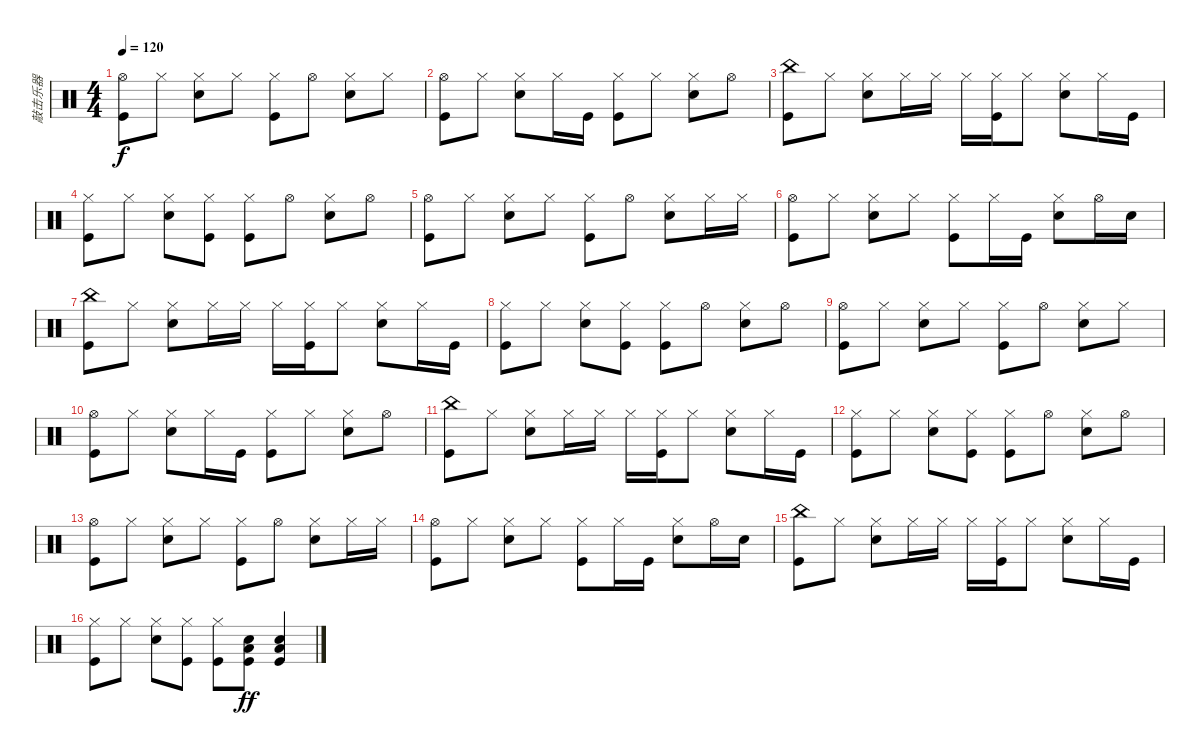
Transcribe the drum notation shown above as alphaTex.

\track ("敲击乐器" "敲击乐器") {instrument percussion}
\staff {score}
\articulation defaults
\ts (4 4)
\tempo 120
\clef neutral
\ks c
("Kick (hit)" "Hi-Hat (open)").8{dy f} "Hi-Hat (closed)".8 ("Snare (hit) 2" "Hi-Hat (closed)").8 "Hi-Hat (closed)".8 ("Kick (hit)" "Hi-Hat (closed)").8 "Hi-Hat (open)".8 ("Snare (hit) 2" "Hi-Hat (closed)").8 "Hi-Hat (closed)".8 |
("Kick (hit)" "Hi-Hat (open)").8 "Hi-Hat (closed)".8 ("Snare (hit) 2" "Hi-Hat (closed)").8 "Hi-Hat (closed)".16 "Kick (hit)".16 ("Kick (hit)" "Hi-Hat (closed)").8 "Hi-Hat (closed)".8 ("Snare (hit) 2" "Hi-Hat (closed)").8 "Hi-Hat (open)".8 |
("Kick (hit)" "China (hit)").8 "Hi-Hat (closed)".8 ("Snare (hit) 2" "Hi-Hat (closed)").8 "Hi-Hat (closed)".16 "Hi-Hat (closed)".16 "Hi-Hat (closed)".16 ("Kick (hit)" "Hi-Hat (closed)").16 "Hi-Hat (closed)".8 ("Snare (hit) 2" "Hi-Hat (closed)").8 "Hi-Hat (closed)".16 "Kick (hit)".16 |
("Kick (hit)" "Hi-Hat (closed)").8 "Hi-Hat (closed)".8 ("Snare (hit) 2" "Hi-Hat (closed)").8 ("Hi-Hat (closed)" "Kick (hit)").8 ("Kick (hit)" "Hi-Hat (closed)").8 "Hi-Hat (open)".8 ("Snare (hit) 2" "Hi-Hat (closed)").8 "Hi-Hat (open)".8 |
("Kick (hit)" "Hi-Hat (open)").8 "Hi-Hat (closed)".8 ("Snare (hit) 2" "Hi-Hat (closed)").8 "Hi-Hat (closed)".8 ("Kick (hit)" "Hi-Hat (closed)").8 "Hi-Hat (open)".8 ("Snare (hit) 2" "Hi-Hat (closed)").8 "Hi-Hat (closed)".16 "Hi-Hat (closed)".16 |
("Kick (hit)" "Hi-Hat (open)").8 "Hi-Hat (closed)".8 ("Snare (hit) 2" "Hi-Hat (closed)").8 "Hi-Hat (closed)".8 ("Kick (hit)" "Hi-Hat (closed)").8 "Hi-Hat (closed)".16 "Kick (hit)".16 ("Snare (hit) 2" "Hi-Hat (closed)").8 "Hi-Hat (open)".16 "Snare (hit) 2".16 |
("Kick (hit)" "China (hit)").8 "Hi-Hat (closed)".8 ("Snare (hit) 2" "Hi-Hat (closed)").8 "Hi-Hat (closed)".16 "Hi-Hat (closed)".16 "Hi-Hat (closed)".16 ("Kick (hit)" "Hi-Hat (closed)").16 "Hi-Hat (closed)".8 ("Snare (hit) 2" "Hi-Hat (closed)").8 "Hi-Hat (closed)".16 "Kick (hit)".16 |
("Kick (hit)" "Hi-Hat (closed)").8 "Hi-Hat (closed)".8 ("Snare (hit) 2" "Hi-Hat (closed)").8 ("Hi-Hat (closed)" "Kick (hit)").8 ("Kick (hit)" "Hi-Hat (closed)").8 "Hi-Hat (open)".8 ("Snare (hit) 2" "Hi-Hat (closed)").8 "Hi-Hat (open)".8 |
("Kick (hit)" "Hi-Hat (open)").8 "Hi-Hat (closed)".8 ("Snare (hit) 2" "Hi-Hat (closed)").8 "Hi-Hat (closed)".8 ("Kick (hit)" "Hi-Hat (closed)").8 "Hi-Hat (open)".8 ("Snare (hit) 2" "Hi-Hat (closed)").8 "Hi-Hat (closed)".8 |
("Kick (hit)" "Hi-Hat (open)").8 "Hi-Hat (closed)".8 ("Snare (hit) 2" "Hi-Hat (closed)").8 "Hi-Hat (closed)".16 "Kick (hit)".16 ("Kick (hit)" "Hi-Hat (closed)").8 "Hi-Hat (closed)".8 ("Snare (hit) 2" "Hi-Hat (closed)").8 "Hi-Hat (open)".8 |
("Kick (hit)" "China (hit)").8 "Hi-Hat (closed)".8 ("Snare (hit) 2" "Hi-Hat (closed)").8 "Hi-Hat (closed)".16 "Hi-Hat (closed)".16 "Hi-Hat (closed)".16 ("Kick (hit)" "Hi-Hat (closed)").16 "Hi-Hat (closed)".8 ("Snare (hit) 2" "Hi-Hat (closed)").8 "Hi-Hat (closed)".16 "Kick (hit)".16 |
("Kick (hit)" "Hi-Hat (closed)").8 "Hi-Hat (closed)".8 ("Snare (hit) 2" "Hi-Hat (closed)").8 ("Hi-Hat (closed)" "Kick (hit)").8 ("Kick (hit)" "Hi-Hat (closed)").8 "Hi-Hat (open)".8 ("Snare (hit) 2" "Hi-Hat (closed)").8 "Hi-Hat (open)".8 |
("Kick (hit)" "Hi-Hat (open)").8 "Hi-Hat (closed)".8 ("Snare (hit) 2" "Hi-Hat (closed)").8 "Hi-Hat (closed)".8 ("Kick (hit)" "Hi-Hat (closed)").8 "Hi-Hat (open)".8 ("Snare (hit) 2" "Hi-Hat (closed)").8 "Hi-Hat (closed)".16 "Hi-Hat (closed)".16 |
("Kick (hit)" "Hi-Hat (open)").8 "Hi-Hat (closed)".8 ("Snare (hit) 2" "Hi-Hat (closed)").8 "Hi-Hat (closed)".8 ("Kick (hit)" "Hi-Hat (closed)").8 "Hi-Hat (closed)".16 "Kick (hit)".16 ("Snare (hit) 2" "Hi-Hat (closed)").8 "Hi-Hat (open)".16 "Snare (hit) 2".16 |
("Kick (hit)" "China (hit)").8 "Hi-Hat (closed)".8 ("Snare (hit) 2" "Hi-Hat (closed)").8 "Hi-Hat (closed)".16 "Hi-Hat (closed)".16 "Hi-Hat (closed)".16 ("Kick (hit)" "Hi-Hat (closed)").16 "Hi-Hat (closed)".8 ("Snare (hit) 2" "Hi-Hat (closed)").8 "Hi-Hat (closed)".16 "Kick (hit)".16 |
("Kick (hit)" "Hi-Hat (closed)").8 "Hi-Hat (closed)".8 ("Snare (hit) 2" "Hi-Hat (closed)").8 ("Hi-Hat (closed)" "Kick (hit)").8 ("Kick (hit)" "Hi-Hat (closed)").8 ("Kick (hit)" "Snare (hit) 2" "Low Tom (hit)").8{dy ff} ("Snare (hit) 2" "Kick (hit)" "Low Tom (hit)").4
